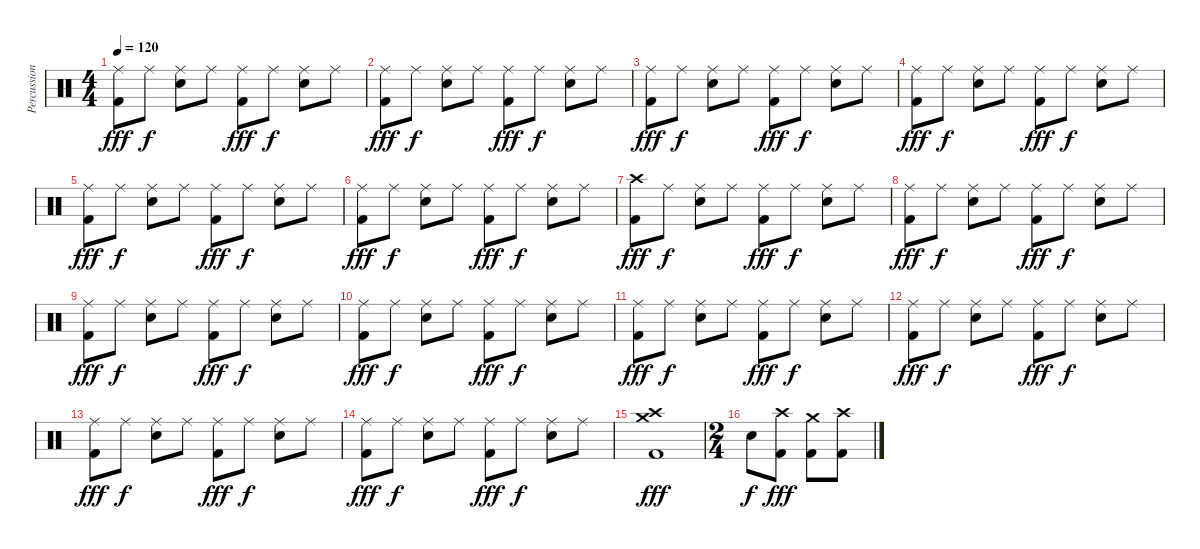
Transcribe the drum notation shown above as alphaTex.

\track ("Percussion" "Percussion") {instrument percussion}
\staff {score}
\articulation defaults
\ts (4 4)
\tempo 120
\clef neutral
\ks c
("Ride (middle)" "Kick (hit) 2").8{dy fff} "Ride (middle)".8{dy f} ("Ride (middle)" "Snare (hit) 2").8 "Ride (middle)".8 ("Ride (middle)" "Kick (hit) 2").8{dy fff} "Ride (middle)".8{dy f} ("Ride (middle)" "Snare (hit) 2").8 "Ride (middle)".8 |
("Ride (middle)" "Kick (hit) 2").8{dy fff} "Ride (middle)".8{dy f} ("Ride (middle)" "Snare (hit) 2").8 "Ride (middle)".8 ("Ride (middle)" "Kick (hit) 2").8{dy fff} "Ride (middle)".8{dy f} ("Ride (middle)" "Snare (hit) 2").8 "Ride (middle)".8 |
("Ride (middle)" "Kick (hit) 2").8{dy fff} "Ride (middle)".8{dy f} ("Ride (middle)" "Snare (hit) 2").8 "Ride (middle)".8 ("Ride (middle)" "Kick (hit) 2").8{dy fff} "Ride (middle)".8{dy f} ("Ride (middle)" "Snare (hit) 2").8 "Ride (middle)".8 |
("Ride (middle)" "Kick (hit) 2").8{dy fff} "Ride (middle)".8{dy f} ("Ride (middle)" "Snare (hit) 2").8 "Ride (middle)".8 ("Ride (middle)" "Kick (hit) 2").8{dy fff} "Ride (middle)".8{dy f} ("Ride (middle)" "Snare (hit) 2").8 "Ride (middle)".8 |
("Ride (middle)" "Kick (hit) 2").8{dy fff} "Ride (middle)".8{dy f} ("Ride (middle)" "Snare (hit) 2").8 "Ride (middle)".8 ("Ride (middle)" "Kick (hit) 2").8{dy fff} "Ride (middle)".8{dy f} ("Ride (middle)" "Snare (hit) 2").8 "Ride (middle)".8 |
("Ride (middle)" "Kick (hit) 2").8{dy fff} "Ride (middle)".8{dy f} ("Ride (middle)" "Snare (hit) 2").8 "Ride (middle)".8 ("Ride (middle)" "Kick (hit) 2").8{dy fff} "Ride (middle)".8{dy f} ("Ride (middle)" "Snare (hit) 2").8 "Ride (middle)".8 |
("Crash high (hit)" "Kick (hit) 2").8{dy fff} "Ride (middle)".8{dy f} ("Ride (middle)" "Snare (hit) 2").8 "Ride (middle)".8 ("Ride (middle)" "Kick (hit) 2").8{dy fff} "Ride (middle)".8{dy f} ("Ride (middle)" "Snare (hit) 2").8 "Ride (middle)".8 |
("Ride (middle)" "Kick (hit) 2").8{dy fff} "Ride (middle)".8{dy f} ("Ride (middle)" "Snare (hit) 2").8 "Ride (middle)".8 ("Ride (middle)" "Kick (hit) 2").8{dy fff} "Ride (middle)".8{dy f} ("Ride (middle)" "Snare (hit) 2").8 "Ride (middle)".8 |
("Ride (middle)" "Kick (hit) 2").8{dy fff} "Ride (middle)".8{dy f} ("Ride (middle)" "Snare (hit) 2").8 "Ride (middle)".8 ("Ride (middle)" "Kick (hit) 2").8{dy fff} "Ride (middle)".8{dy f} ("Ride (middle)" "Snare (hit) 2").8 "Ride (middle)".8 |
("Ride (middle)" "Kick (hit) 2").8{dy fff} "Ride (middle)".8{dy f} ("Ride (middle)" "Snare (hit) 2").8 "Ride (middle)".8 ("Ride (middle)" "Kick (hit) 2").8{dy fff} "Ride (middle)".8{dy f} ("Ride (middle)" "Snare (hit) 2").8 "Ride (middle)".8 |
("Ride (middle)" "Kick (hit) 2").8{dy fff} "Ride (middle)".8{dy f} ("Ride (middle)" "Snare (hit) 2").8 "Ride (middle)".8 ("Ride (middle)" "Kick (hit) 2").8{dy fff} "Ride (middle)".8{dy f} ("Ride (middle)" "Snare (hit) 2").8 "Ride (middle)".8 |
("Ride (middle)" "Kick (hit) 2").8{dy fff} "Ride (middle)".8{dy f} ("Ride (middle)" "Snare (hit) 2").8 "Ride (middle)".8 ("Ride (middle)" "Kick (hit) 2").8{dy fff} "Ride (middle)".8{dy f} ("Ride (middle)" "Snare (hit) 2").8 "Ride (middle)".8 |
("Ride (middle)" "Kick (hit) 2").8{dy fff} "Ride (middle)".8{dy f} ("Ride (middle)" "Snare (hit) 2").8 "Ride (middle)".8 ("Ride (middle)" "Kick (hit) 2").8{dy fff} "Ride (middle)".8{dy f} ("Ride (middle)" "Snare (hit) 2").8 "Ride (middle)".8 |
("Ride (middle)" "Kick (hit) 2").8{dy fff} "Ride (middle)".8{dy f} ("Ride (middle)" "Snare (hit) 2").8 "Ride (middle)".8 ("Ride (middle)" "Kick (hit) 2").8{dy fff} "Ride (middle)".8{dy f} ("Ride (middle)" "Snare (hit) 2").8 "Ride (middle)".8 |
("Crash high (hit)" "Crash medium (hit)" "Kick (hit) 2").1{dy fff} |
\ts (2 4)
"Snare (hit) 2".8{dy f} ("Crash high (hit)" "Kick (hit) 2").8{dy fff} ("Crash medium (hit)" "Kick (hit) 2").8 ("Crash high (hit)" "Kick (hit) 2").8
